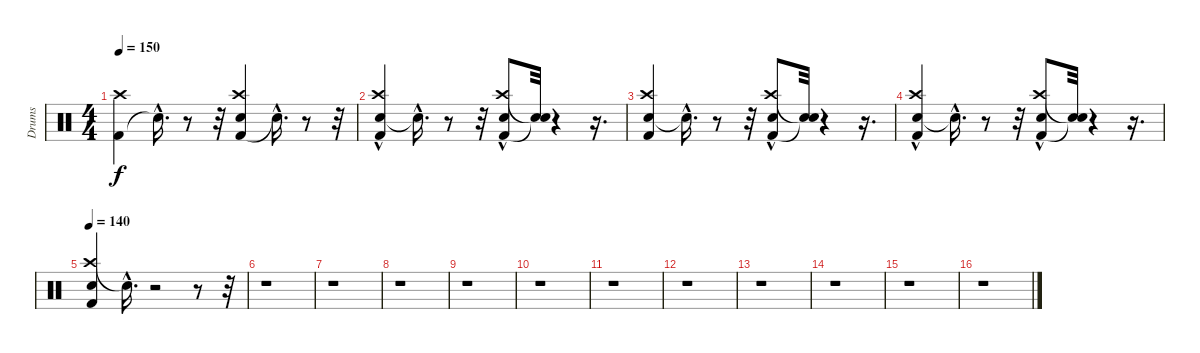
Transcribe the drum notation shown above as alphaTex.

\track ("Drums" "Drums") {instrument percussion}
\staff {score}
\articulation defaults
\ts (4 4)
\tempo 150
\clef neutral
\ks c
("Kick (hit) 2" "Crash high (hit)").4{dy f} "Snare (hit)"{hac t}.16{d} r.8 r.32 ("Kick (hit) 2" "Snare (hit) 2" "Crash high (hit)").4 "Snare (hit)"{hac t}.16{d} r.8 r.32 |
("Snare (hit) 2"{hac} "Crash high (hit)" "Kick (hit) 2").4 "Snare (hit)"{hac t}.16{d} r.8 r.32 ("Kick (hit) 2" "Crash high (hit)"{hac} "Snare (hit) 2").8 ("Snare (hit)"{t} "Snare (hit)"{t}).32 r.4 r.16{d} |
("Snare (hit) 2" "Crash high (hit)" "Kick (hit) 2").4 "Snare (hit)"{hac t}.16{d} r.8 r.32 ("Kick (hit) 2" "Crash high (hit)"{hac} "Snare (hit) 2").8 ("Snare (hit)"{t} "Snare (hit)"{t}).32 r.4 r.16{d} |
("Snare (hit) 2"{hac} "Kick (hit) 2" "Crash high (hit)").4 "Snare (hit)"{hac t}.16{d} r.8 r.32 ("Kick (hit) 2" "Crash high (hit)"{hac} "Snare (hit) 2").8 ("Snare (hit)"{t} "Snare (hit)"{t}).32 r.4 r.16{d} |
\tempo 140
("Crash high (hit)" "Kick (hit) 2" "Snare (hit) 2").4 "Snare (hit)"{hac t}.16{d} r.2 r.8 r.32 |
r.1 |
r.1 |
r.1 |
r.1 |
r.1 |
r.1 |
r.1 |
r.1 |
r.1 |
r.1 |
r.1
